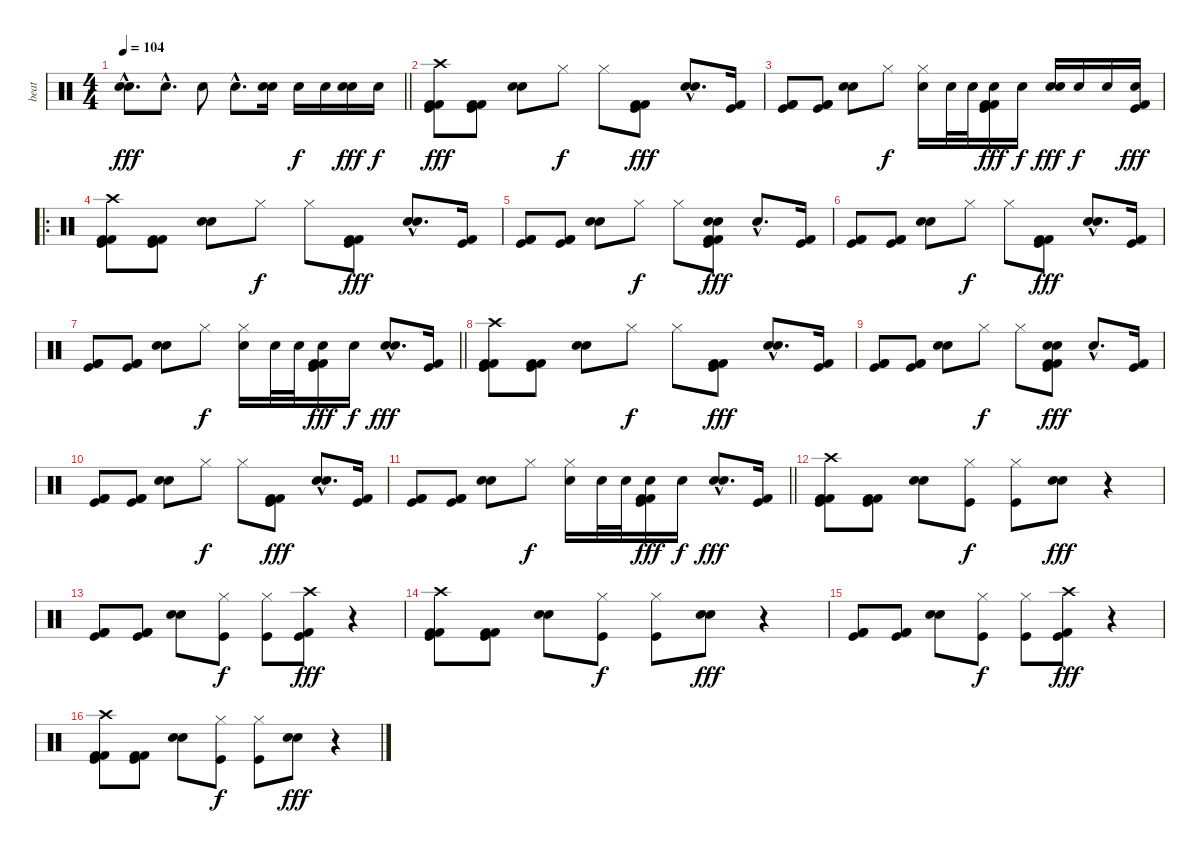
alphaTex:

\track ("beat" "beat") {instrument percussion}
\staff {score}
\articulation defaults
\ts (4 4)
\tempo 104
\clef neutral
\barLineRight lightlight
\ks c
("Snare (hit) 2"{hac} "Electric Snare (hit)"{hac}).8{d dy fff} "Snare (hit) 2"{hac}.8{d} "Snare (hit) 2".8 "Snare (hit) 2"{hac}.8{d} ("Snare (hit) 2" "Electric Snare (hit)").16 "Electric Snare (hit)".16{dy f} "Electric Snare (hit)".16 ("Snare (hit) 2" "Electric Snare (hit)").16{dy fff} "Electric Snare (hit)".16{dy f} |
("Kick (hit)" "Kick (hit) 2" "Kick (hit) 2" "Crash high (hit)").8{dy fff} ("Kick (hit)" "Kick (hit) 2" "Kick (hit) 2").8 ("Snare (hit) 2" "Electric Snare (hit)").8 "Hi-Hat (closed)".8{dy f} "Hi-Hat (closed)".8 ("Kick (hit)" "Kick (hit) 2" "Kick (hit) 2").8{dy fff} ("Snare (hit) 2"{hac} "Electric Snare (hit)"{hac}).8{d} ("Kick (hit)" "Kick (hit) 2").16 |
("Kick (hit)" "Kick (hit) 2" "Kick (hit) 2").8 ("Kick (hit)" "Kick (hit) 2" "Kick (hit) 2").8 ("Snare (hit) 2" "Electric Snare (hit)").8 "Hi-Hat (closed)".8{dy f} ("Electric Snare (hit)" "Hi-Hat (closed)").16 "Electric Snare (hit)".32 "Electric Snare (hit)".32 ("Kick (hit)" "Kick (hit) 2" "Kick (hit) 2" "Electric Snare (hit)").16{dy fff} "Electric Snare (hit)".16{dy f} ("Snare (hit) 2" "Electric Snare (hit)").16{dy fff} "Electric Snare (hit)".16{dy f} "Electric Snare (hit)".16 ("Kick (hit)" "Kick (hit) 2" "Electric Snare (hit)").16{dy fff} |
\ro
("Kick (hit)" "Kick (hit) 2" "Kick (hit) 2" "Crash high (hit)").8 ("Kick (hit)" "Kick (hit) 2" "Kick (hit) 2").8 ("Snare (hit) 2" "Electric Snare (hit)").8 "Hi-Hat (closed)".8{dy f} "Hi-Hat (closed)".8 ("Kick (hit)" "Kick (hit) 2" "Kick (hit) 2").8{dy fff} ("Snare (hit) 2"{hac} "Electric Snare (hit)"{hac}).8{d} ("Kick (hit)" "Kick (hit) 2").16 |
("Kick (hit)" "Kick (hit) 2" "Kick (hit) 2").8 ("Kick (hit)" "Kick (hit) 2" "Kick (hit) 2").8 ("Snare (hit) 2" "Electric Snare (hit)").8 "Hi-Hat (closed)".8{dy f} "Hi-Hat (closed)".8 ("Kick (hit)" "Kick (hit) 2" "Kick (hit) 2" "Hand Clap (hit)" "Hand Clap (hit)").8{dy fff} "Snare (hit) 2"{hac}.8{d} ("Kick (hit)" "Kick (hit) 2").16 |
("Kick (hit)" "Kick (hit) 2" "Kick (hit) 2").8 ("Kick (hit)" "Kick (hit) 2" "Kick (hit) 2").8 ("Snare (hit) 2" "Electric Snare (hit)").8 "Hi-Hat (closed)".8{dy f} "Hi-Hat (closed)".8 ("Kick (hit)" "Kick (hit) 2" "Kick (hit) 2").8{dy fff} ("Snare (hit) 2"{hac} "Electric Snare (hit)"{hac}).8{d} ("Kick (hit)" "Kick (hit) 2").16 |
\barLineRight lightlight
("Kick (hit)" "Kick (hit) 2" "Kick (hit) 2").8 ("Kick (hit)" "Kick (hit) 2" "Kick (hit) 2").8 ("Snare (hit) 2" "Electric Snare (hit)").8 "Hi-Hat (closed)".8{dy f} ("Electric Snare (hit)" "Hi-Hat (closed)").16 "Electric Snare (hit)".32 "Electric Snare (hit)".32 ("Kick (hit)" "Kick (hit) 2" "Kick (hit) 2" "Electric Snare (hit)").16{dy fff} "Electric Snare (hit)".16{dy f} ("Snare (hit) 2"{hac} "Electric Snare (hit)"{hac}).8{d dy fff} ("Kick (hit)" "Kick (hit) 2").16 |
("Kick (hit)" "Kick (hit) 2" "Kick (hit) 2" "Crash high (hit)").8 ("Kick (hit)" "Kick (hit) 2" "Kick (hit) 2").8 ("Snare (hit) 2" "Electric Snare (hit)").8 "Hi-Hat (closed)".8{dy f} "Hi-Hat (closed)".8 ("Kick (hit)" "Kick (hit) 2" "Kick (hit) 2").8{dy fff} ("Snare (hit) 2"{hac} "Electric Snare (hit)"{hac}).8{d} ("Kick (hit)" "Kick (hit) 2").16 |
("Kick (hit)" "Kick (hit) 2" "Kick (hit) 2").8 ("Kick (hit)" "Kick (hit) 2" "Kick (hit) 2").8 ("Snare (hit) 2" "Electric Snare (hit)").8 "Hi-Hat (closed)".8{dy f} "Hi-Hat (closed)".8 ("Kick (hit)" "Kick (hit) 2" "Kick (hit) 2" "Hand Clap (hit)" "Hand Clap (hit)").8{dy fff} "Snare (hit) 2"{hac}.8{d} ("Kick (hit)" "Kick (hit) 2").16 |
("Kick (hit)" "Kick (hit) 2" "Kick (hit) 2").8 ("Kick (hit)" "Kick (hit) 2" "Kick (hit) 2").8 ("Snare (hit) 2" "Electric Snare (hit)").8 "Hi-Hat (closed)".8{dy f} "Hi-Hat (closed)".8 ("Kick (hit)" "Kick (hit) 2" "Kick (hit) 2").8{dy fff} ("Snare (hit) 2"{hac} "Electric Snare (hit)"{hac}).8{d} ("Kick (hit)" "Kick (hit) 2").16 |
\barLineRight lightlight
("Kick (hit)" "Kick (hit) 2" "Kick (hit) 2").8 ("Kick (hit)" "Kick (hit) 2" "Kick (hit) 2").8 ("Snare (hit) 2" "Electric Snare (hit)").8 "Hi-Hat (closed)".8{dy f} ("Electric Snare (hit)" "Hi-Hat (closed)").16 "Electric Snare (hit)".32 "Electric Snare (hit)".32 ("Kick (hit)" "Kick (hit) 2" "Kick (hit) 2" "Electric Snare (hit)").16{dy fff} "Electric Snare (hit)".16{dy f} ("Snare (hit) 2"{hac} "Electric Snare (hit)"{hac}).8{d dy fff} ("Kick (hit)" "Kick (hit) 2").16 |
("Kick (hit)" "Kick (hit) 2" "Kick (hit) 2" "Crash high (hit)").8 ("Kick (hit)" "Kick (hit) 2" "Kick (hit) 2").8 ("Snare (hit) 2" "Electric Snare (hit)").8 ("Kick (hit)" "Hi-Hat (closed)").8{dy f} ("Kick (hit)" "Hi-Hat (closed)").8 ("Snare (hit) 2" "Electric Snare (hit)").8{dy fff} r.4 |
("Kick (hit)" "Kick (hit) 2" "Kick (hit) 2").8 ("Kick (hit)" "Kick (hit) 2" "Kick (hit) 2").8 ("Snare (hit) 2" "Electric Snare (hit)").8 ("Kick (hit)" "Hi-Hat (closed)").8{dy f} ("Kick (hit)" "Hi-Hat (closed)").8 ("Kick (hit)" "Kick (hit) 2" "Crash high (hit)").8{dy fff} r.4 |
("Kick (hit)" "Kick (hit) 2" "Kick (hit) 2" "Crash high (hit)").8 ("Kick (hit)" "Kick (hit) 2" "Kick (hit) 2").8 ("Snare (hit) 2" "Electric Snare (hit)").8 ("Kick (hit)" "Hi-Hat (closed)").8{dy f} ("Kick (hit)" "Hi-Hat (closed)").8 ("Snare (hit) 2" "Electric Snare (hit)").8{dy fff} r.4 |
("Kick (hit)" "Kick (hit) 2" "Kick (hit) 2").8 ("Kick (hit)" "Kick (hit) 2" "Kick (hit) 2").8 ("Snare (hit) 2" "Electric Snare (hit)").8 ("Kick (hit)" "Hi-Hat (closed)").8{dy f} ("Kick (hit)" "Hi-Hat (closed)").8 ("Kick (hit)" "Kick (hit) 2" "Crash high (hit)").8{dy fff} r.4 |
("Kick (hit)" "Kick (hit) 2" "Kick (hit) 2" "Crash high (hit)").8 ("Kick (hit)" "Kick (hit) 2" "Kick (hit) 2").8 ("Snare (hit) 2" "Electric Snare (hit)").8 ("Kick (hit)" "Hi-Hat (closed)").8{dy f} ("Kick (hit)" "Hi-Hat (closed)").8 ("Snare (hit) 2" "Electric Snare (hit)").8{dy fff} r.4
